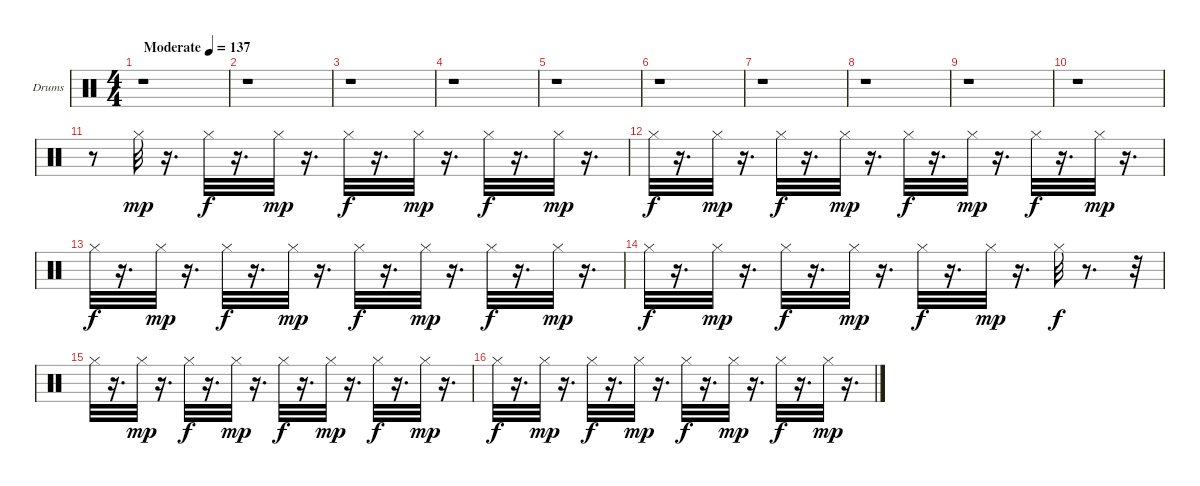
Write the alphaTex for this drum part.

\bracketExtendMode groupsimilarinstruments
\firstSystemTrackNameOrientation horizontal
\otherSystemsTrackNameOrientation horizontal
\track ("Drumkit" "Drums") {instrument percussion}
\staff {score}
\articulation defaults
\ts (4 4)
\beaming (8 2 2 2 2)
\tempo (137 "Moderate")
\clef neutral
\ks c
r.1{dy mp} |
r.1 |
r.1 |
r.1 |
r.1 |
r.1 |
r.1 |
r.1 |
r.1 |
r.1 |
r.8 "Hi-Hat (closed)".32 r.16{d} "Hi-Hat (closed)".32{dy f} r.16{d} "Hi-Hat (closed)".32{dy mp} r.16{d} "Hi-Hat (closed)".32{dy f} r.16{d} "Hi-Hat (closed)".32{dy mp} r.16{d} "Hi-Hat (closed)".32{dy f} r.16{d} "Hi-Hat (closed)".32{dy mp} r.16{d} |
"Hi-Hat (closed)".32{dy f} r.16{d} "Hi-Hat (closed)".32{dy mp} r.16{d} "Hi-Hat (closed)".32{dy f} r.16{d} "Hi-Hat (closed)".32{dy mp} r.16{d} "Hi-Hat (closed)".32{dy f} r.16{d} "Hi-Hat (closed)".32{dy mp} r.16{d} "Hi-Hat (closed)".32{dy f} r.16{d} "Hi-Hat (closed)".32{dy mp} r.16{d} |
"Hi-Hat (closed)".32{dy f} r.16{d} "Hi-Hat (closed)".32{dy mp} r.16{d} "Hi-Hat (closed)".32{dy f} r.16{d} "Hi-Hat (closed)".32{dy mp} r.16{d} "Hi-Hat (closed)".32{dy f} r.16{d} "Hi-Hat (closed)".32{dy mp} r.16{d} "Hi-Hat (closed)".32{dy f} r.16{d} "Hi-Hat (closed)".32{dy mp} r.16{d} |
"Hi-Hat (closed)".32{dy f} r.16{d} "Hi-Hat (closed)".32{dy mp} r.16{d} "Hi-Hat (closed)".32{dy f} r.16{d} "Hi-Hat (closed)".32{dy mp} r.16{d} "Hi-Hat (closed)".32{dy f} r.16{d} "Hi-Hat (closed)".32{dy mp} r.16{d} "Hi-Hat (closed)".32{dy f} r.8{d} r.32 |
"Hi-Hat (closed)".32 r.16{d} "Hi-Hat (closed)".32{dy mp} r.16{d} "Hi-Hat (closed)".32{dy f} r.16{d} "Hi-Hat (closed)".32{dy mp} r.16{d} "Hi-Hat (closed)".32{dy f} r.16{d} "Hi-Hat (closed)".32{dy mp} r.16{d} "Hi-Hat (closed)".32{dy f} r.16{d} "Hi-Hat (closed)".32{dy mp} r.16{d} |
"Hi-Hat (closed)".32{dy f} r.16{d} "Hi-Hat (closed)".32{dy mp} r.16{d} "Hi-Hat (closed)".32{dy f} r.16{d} "Hi-Hat (closed)".32{dy mp} r.16{d} "Hi-Hat (closed)".32{dy f} r.16{d} "Hi-Hat (closed)".32{dy mp} r.16{d} "Hi-Hat (closed)".32{dy f} r.16{d} "Hi-Hat (closed)".32{dy mp} r.16{d}
